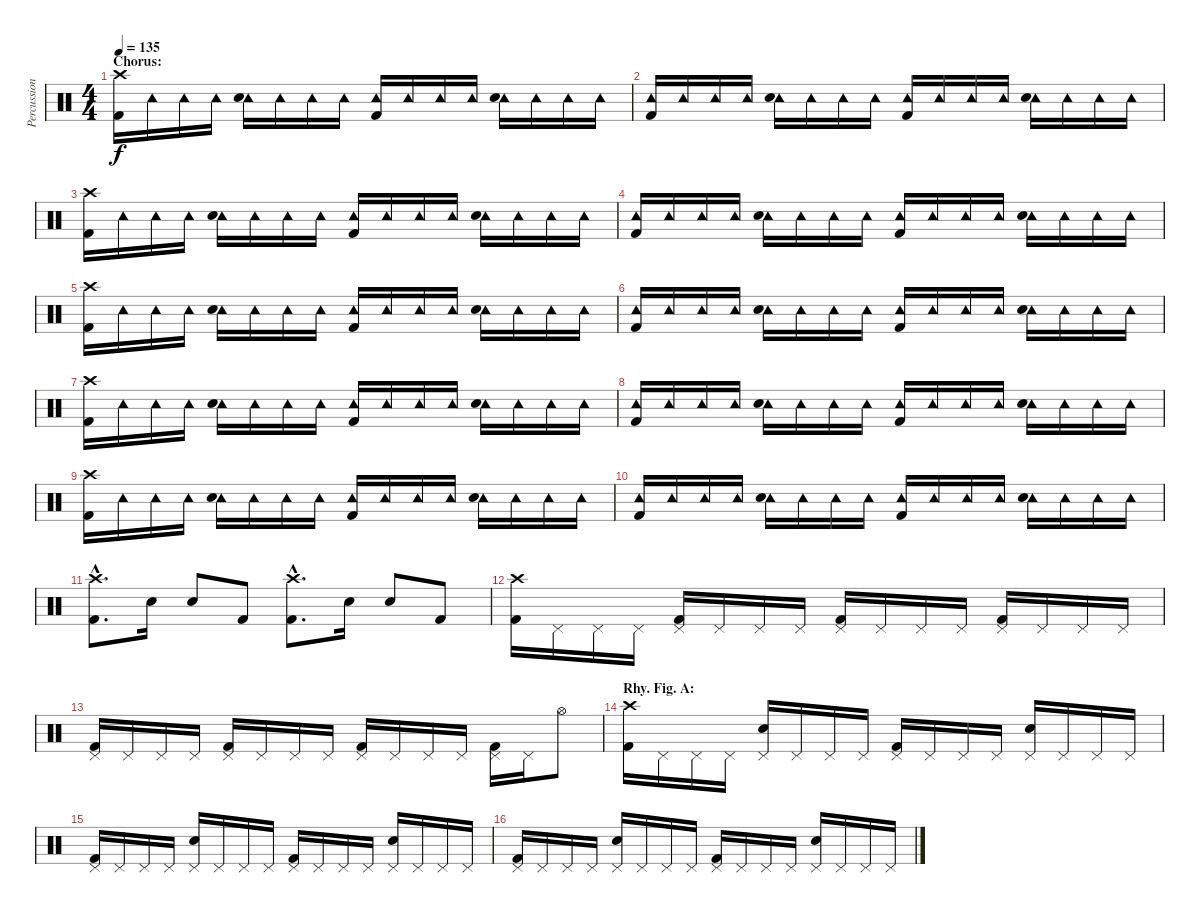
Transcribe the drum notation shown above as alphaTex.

\track ("Percussion" "Percussion") {instrument percussion}
\staff {score}
\articulation defaults
\ts (4 4)
\section ("" "Chorus:")
\tempo 135
\clef neutral
\ks c
("Crash high (hit)" "Kick (hit) 2").16{dy f} "Tambourine (hit)".16 "Tambourine (hit)".16 "Tambourine (hit)".16 ("Tambourine (hit)" "Snare (hit) 2").16 "Tambourine (hit)".16 "Tambourine (hit)".16 "Tambourine (hit)".16 ("Tambourine (hit)" "Kick (hit) 2").16 "Tambourine (hit)".16 "Tambourine (hit)".16 "Tambourine (hit)".16 ("Tambourine (hit)" "Snare (hit) 2").16 "Tambourine (hit)".16 "Tambourine (hit)".16 "Tambourine (hit)".16 |
("Tambourine (hit)" "Kick (hit) 2").16 "Tambourine (hit)".16 "Tambourine (hit)".16 "Tambourine (hit)".16 ("Tambourine (hit)" "Snare (hit) 2").16 "Tambourine (hit)".16 "Tambourine (hit)".16 "Tambourine (hit)".16 ("Tambourine (hit)" "Kick (hit) 2").16 "Tambourine (hit)".16 "Tambourine (hit)".16 "Tambourine (hit)".16 ("Tambourine (hit)" "Snare (hit) 2").16 "Tambourine (hit)".16 "Tambourine (hit)".16 "Tambourine (hit)".16 |
("Crash high (hit)" "Kick (hit) 2").16 "Tambourine (hit)".16 "Tambourine (hit)".16 "Tambourine (hit)".16 ("Tambourine (hit)" "Snare (hit) 2").16 "Tambourine (hit)".16 "Tambourine (hit)".16 "Tambourine (hit)".16 ("Tambourine (hit)" "Kick (hit) 2").16 "Tambourine (hit)".16 "Tambourine (hit)".16 "Tambourine (hit)".16 ("Tambourine (hit)" "Snare (hit) 2").16 "Tambourine (hit)".16 "Tambourine (hit)".16 "Tambourine (hit)".16 |
("Tambourine (hit)" "Kick (hit) 2").16 "Tambourine (hit)".16 "Tambourine (hit)".16 "Tambourine (hit)".16 ("Tambourine (hit)" "Snare (hit) 2").16 "Tambourine (hit)".16 "Tambourine (hit)".16 "Tambourine (hit)".16 ("Tambourine (hit)" "Kick (hit) 2").16 "Tambourine (hit)".16 "Tambourine (hit)".16 "Tambourine (hit)".16 ("Tambourine (hit)" "Snare (hit) 2").16 "Tambourine (hit)".16 "Tambourine (hit)".16 "Tambourine (hit)".16 |
("Crash high (hit)" "Kick (hit) 2").16 "Tambourine (hit)".16 "Tambourine (hit)".16 "Tambourine (hit)".16 ("Tambourine (hit)" "Snare (hit) 2").16 "Tambourine (hit)".16 "Tambourine (hit)".16 "Tambourine (hit)".16 ("Tambourine (hit)" "Kick (hit) 2").16 "Tambourine (hit)".16 "Tambourine (hit)".16 "Tambourine (hit)".16 ("Tambourine (hit)" "Snare (hit) 2").16 "Tambourine (hit)".16 "Tambourine (hit)".16 "Tambourine (hit)".16 |
("Tambourine (hit)" "Kick (hit) 2").16 "Tambourine (hit)".16 "Tambourine (hit)".16 "Tambourine (hit)".16 ("Tambourine (hit)" "Snare (hit) 2").16 "Tambourine (hit)".16 "Tambourine (hit)".16 "Tambourine (hit)".16 ("Tambourine (hit)" "Kick (hit) 2").16 "Tambourine (hit)".16 "Tambourine (hit)".16 "Tambourine (hit)".16 ("Tambourine (hit)" "Snare (hit) 2").16 "Tambourine (hit)".16 "Tambourine (hit)".16 "Tambourine (hit)".16 |
("Crash high (hit)" "Kick (hit) 2").16 "Tambourine (hit)".16 "Tambourine (hit)".16 "Tambourine (hit)".16 ("Tambourine (hit)" "Snare (hit) 2").16 "Tambourine (hit)".16 "Tambourine (hit)".16 "Tambourine (hit)".16 ("Tambourine (hit)" "Kick (hit) 2").16 "Tambourine (hit)".16 "Tambourine (hit)".16 "Tambourine (hit)".16 ("Tambourine (hit)" "Snare (hit) 2").16 "Tambourine (hit)".16 "Tambourine (hit)".16 "Tambourine (hit)".16 |
("Tambourine (hit)" "Kick (hit) 2").16 "Tambourine (hit)".16 "Tambourine (hit)".16 "Tambourine (hit)".16 ("Tambourine (hit)" "Snare (hit) 2").16 "Tambourine (hit)".16 "Tambourine (hit)".16 "Tambourine (hit)".16 ("Tambourine (hit)" "Kick (hit) 2").16 "Tambourine (hit)".16 "Tambourine (hit)".16 "Tambourine (hit)".16 ("Tambourine (hit)" "Snare (hit) 2").16 "Tambourine (hit)".16 "Tambourine (hit)".16 "Tambourine (hit)".16 |
("Crash high (hit)" "Kick (hit) 2").16 "Tambourine (hit)".16 "Tambourine (hit)".16 "Tambourine (hit)".16 ("Tambourine (hit)" "Snare (hit) 2").16 "Tambourine (hit)".16 "Tambourine (hit)".16 "Tambourine (hit)".16 ("Tambourine (hit)" "Kick (hit) 2").16 "Tambourine (hit)".16 "Tambourine (hit)".16 "Tambourine (hit)".16 ("Tambourine (hit)" "Snare (hit) 2").16 "Tambourine (hit)".16 "Tambourine (hit)".16 "Tambourine (hit)".16 |
("Tambourine (hit)" "Kick (hit) 2").16 "Tambourine (hit)".16 "Tambourine (hit)".16 "Tambourine (hit)".16 ("Tambourine (hit)" "Snare (hit) 2").16 "Tambourine (hit)".16 "Tambourine (hit)".16 "Tambourine (hit)".16 ("Tambourine (hit)" "Kick (hit) 2").16 "Tambourine (hit)".16 "Tambourine (hit)".16 "Tambourine (hit)".16 ("Tambourine (hit)" "Snare (hit) 2").16 "Tambourine (hit)".16 "Tambourine (hit)".16 "Tambourine (hit)".16 |
("Crash high (hit)"{hac} "Kick (hit) 2"{hac}).8{d} "Snare (hit) 2".16 "Snare (hit) 2".8 "Kick (hit) 2".8 ("Crash high (hit)"{hac} "Kick (hit) 2"{hac}).8{d} "Snare (hit) 2".16 "Snare (hit) 2".8 "Kick (hit) 2".8 |
("Crash high (hit)" "Kick (hit) 2").16 "Pedal Hi-Hat (hit)".16 "Pedal Hi-Hat (hit)".16 "Pedal Hi-Hat (hit)".16 ("Pedal Hi-Hat (hit)" "Kick (hit) 2").16 "Pedal Hi-Hat (hit)".16 "Pedal Hi-Hat (hit)".16 "Pedal Hi-Hat (hit)".16 ("Pedal Hi-Hat (hit)" "Kick (hit) 2").16 "Pedal Hi-Hat (hit)".16 "Pedal Hi-Hat (hit)".16 "Pedal Hi-Hat (hit)".16 ("Pedal Hi-Hat (hit)" "Kick (hit) 2").16 "Pedal Hi-Hat (hit)".16 "Pedal Hi-Hat (hit)".16 "Pedal Hi-Hat (hit)".16 |
("Pedal Hi-Hat (hit)" "Kick (hit) 2").16 "Pedal Hi-Hat (hit)".16 "Pedal Hi-Hat (hit)".16 "Pedal Hi-Hat (hit)".16 ("Pedal Hi-Hat (hit)" "Kick (hit) 2").16 "Pedal Hi-Hat (hit)".16 "Pedal Hi-Hat (hit)".16 "Pedal Hi-Hat (hit)".16 ("Pedal Hi-Hat (hit)" "Kick (hit) 2").16 "Pedal Hi-Hat (hit)".16 "Pedal Hi-Hat (hit)".16 "Pedal Hi-Hat (hit)".16 ("Pedal Hi-Hat (hit)" "Kick (hit) 2").16 "Pedal Hi-Hat (hit)".16 "Hi-Hat (open)".8 |
\section ("" "Rhy. Fig. A:")
("Crash high (hit)" "Kick (hit) 2").16 "Pedal Hi-Hat (hit)".16 "Pedal Hi-Hat (hit)".16 "Pedal Hi-Hat (hit)".16 ("Pedal Hi-Hat (hit)" "Snare (hit) 2").16 "Pedal Hi-Hat (hit)".16 "Pedal Hi-Hat (hit)".16 "Pedal Hi-Hat (hit)".16 ("Pedal Hi-Hat (hit)" "Kick (hit) 2").16 "Pedal Hi-Hat (hit)".16 "Pedal Hi-Hat (hit)".16 "Pedal Hi-Hat (hit)".16 ("Pedal Hi-Hat (hit)" "Snare (hit) 2").16 "Pedal Hi-Hat (hit)".16 "Pedal Hi-Hat (hit)".16 "Pedal Hi-Hat (hit)".16 |
("Pedal Hi-Hat (hit)" "Kick (hit) 2").16 "Pedal Hi-Hat (hit)".16 "Pedal Hi-Hat (hit)".16 "Pedal Hi-Hat (hit)".16 ("Pedal Hi-Hat (hit)" "Snare (hit) 2").16 "Pedal Hi-Hat (hit)".16 "Pedal Hi-Hat (hit)".16 "Pedal Hi-Hat (hit)".16 ("Pedal Hi-Hat (hit)" "Kick (hit) 2").16 "Pedal Hi-Hat (hit)".16 "Pedal Hi-Hat (hit)".16 "Pedal Hi-Hat (hit)".16 ("Pedal Hi-Hat (hit)" "Snare (hit) 2").16 "Pedal Hi-Hat (hit)".16 "Pedal Hi-Hat (hit)".16 "Pedal Hi-Hat (hit)".16 |
("Pedal Hi-Hat (hit)" "Kick (hit) 2").16 "Pedal Hi-Hat (hit)".16 "Pedal Hi-Hat (hit)".16 "Pedal Hi-Hat (hit)".16 ("Pedal Hi-Hat (hit)" "Snare (hit) 2").16 "Pedal Hi-Hat (hit)".16 "Pedal Hi-Hat (hit)".16 "Pedal Hi-Hat (hit)".16 ("Pedal Hi-Hat (hit)" "Kick (hit) 2").16 "Pedal Hi-Hat (hit)".16 "Pedal Hi-Hat (hit)".16 "Pedal Hi-Hat (hit)".16 ("Pedal Hi-Hat (hit)" "Snare (hit) 2").16 "Pedal Hi-Hat (hit)".16 "Pedal Hi-Hat (hit)".16 "Pedal Hi-Hat (hit)".16
